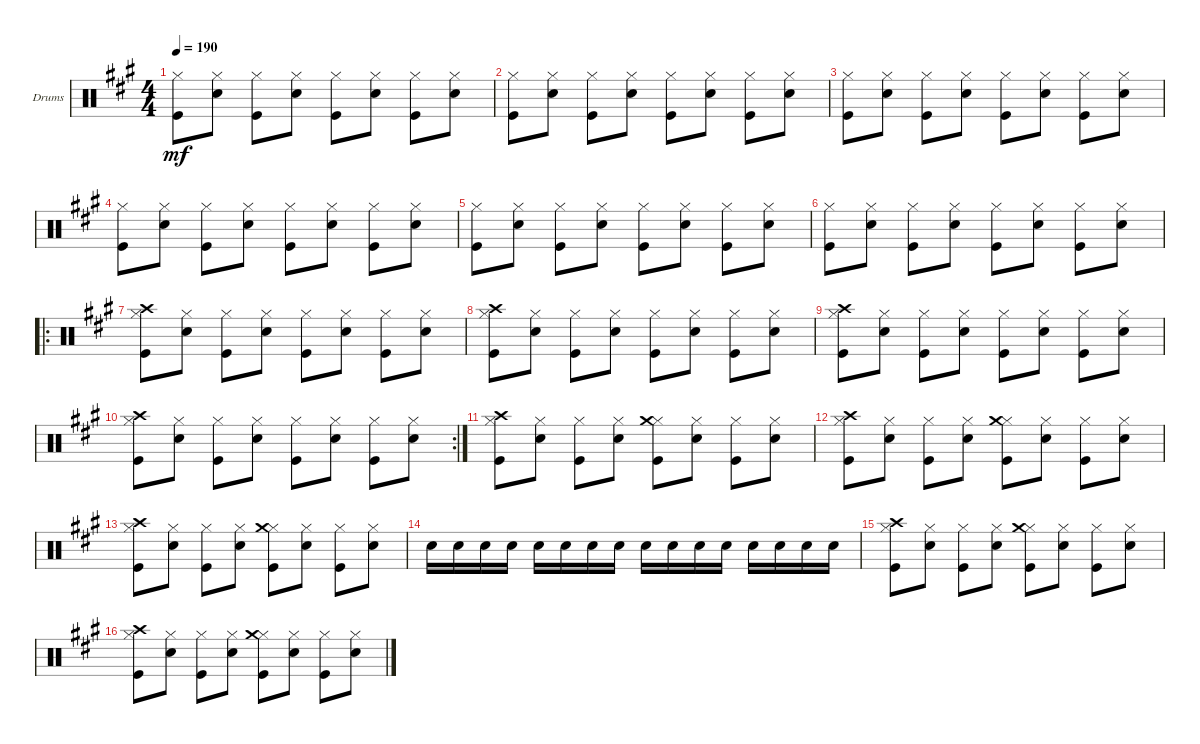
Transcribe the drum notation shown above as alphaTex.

\defaultSystemsLayout 4
\bracketExtendMode groupsimilarinstruments
\firstSystemTrackNameOrientation horizontal
\otherSystemsTrackNameOrientation horizontal
\track ("Drumkit" "Drums") {instrument percussion}
\staff {score}
\articulation defaults
\ts (4 4)
\tempo 190
\clef neutral
\ks f#minor
("Kick (hit)" "Hi-Hat (closed)").8{dy mf} ("Snare (hit) 2" "Hi-Hat (closed)").8 ("Kick (hit)" "Hi-Hat (closed)").8 ("Snare (hit) 2" "Hi-Hat (closed)").8 ("Kick (hit)" "Hi-Hat (closed)").8 ("Snare (hit) 2" "Hi-Hat (closed)").8 ("Kick (hit)" "Hi-Hat (closed)").8 ("Snare (hit) 2" "Hi-Hat (closed)").8 |
("Kick (hit)" "Hi-Hat (closed)").8 ("Snare (hit) 2" "Hi-Hat (closed)").8 ("Kick (hit)" "Hi-Hat (closed)").8 ("Snare (hit) 2" "Hi-Hat (closed)").8 ("Kick (hit)" "Hi-Hat (closed)").8 ("Snare (hit) 2" "Hi-Hat (closed)").8 ("Kick (hit)" "Hi-Hat (closed)").8 ("Snare (hit) 2" "Hi-Hat (closed)").8 |
("Kick (hit)" "Hi-Hat (closed)").8 ("Snare (hit) 2" "Hi-Hat (closed)").8 ("Kick (hit)" "Hi-Hat (closed)").8 ("Snare (hit) 2" "Hi-Hat (closed)").8 ("Kick (hit)" "Hi-Hat (closed)").8 ("Snare (hit) 2" "Hi-Hat (closed)").8 ("Kick (hit)" "Hi-Hat (closed)").8 ("Snare (hit) 2" "Hi-Hat (closed)").8 |
("Kick (hit)" "Hi-Hat (closed)").8 ("Snare (hit) 2" "Hi-Hat (closed)").8 ("Kick (hit)" "Hi-Hat (closed)").8 ("Snare (hit) 2" "Hi-Hat (closed)").8 ("Kick (hit)" "Hi-Hat (closed)").8 ("Snare (hit) 2" "Hi-Hat (closed)").8 ("Kick (hit)" "Hi-Hat (closed)").8 ("Snare (hit) 2" "Hi-Hat (closed)").8 |
("Kick (hit)" "Hi-Hat (closed)").8 ("Snare (hit) 2" "Hi-Hat (closed)").8 ("Kick (hit)" "Hi-Hat (closed)").8 ("Snare (hit) 2" "Hi-Hat (closed)").8 ("Kick (hit)" "Hi-Hat (closed)").8 ("Snare (hit) 2" "Hi-Hat (closed)").8 ("Kick (hit)" "Hi-Hat (closed)").8 ("Snare (hit) 2" "Hi-Hat (closed)").8 |
("Kick (hit)" "Hi-Hat (closed)").8 ("Snare (hit) 2" "Hi-Hat (closed)").8 ("Kick (hit)" "Hi-Hat (closed)").8 ("Snare (hit) 2" "Hi-Hat (closed)").8 ("Kick (hit)" "Hi-Hat (closed)").8 ("Snare (hit) 2" "Hi-Hat (closed)").8 ("Kick (hit)" "Hi-Hat (closed)").8 ("Snare (hit) 2" "Hi-Hat (closed)").8 |
\ro
("Kick (hit)" "Hi-Hat (closed)" "Crash high (hit)").8 ("Snare (hit) 2" "Hi-Hat (closed)").8 ("Kick (hit)" "Hi-Hat (closed)").8 ("Snare (hit) 2" "Hi-Hat (closed)").8 ("Kick (hit)" "Hi-Hat (closed)").8 ("Snare (hit) 2" "Hi-Hat (closed)").8 ("Kick (hit)" "Hi-Hat (closed)").8 ("Snare (hit) 2" "Hi-Hat (closed)").8 |
("Kick (hit)" "Hi-Hat (closed)" "Crash high (hit)").8 ("Snare (hit) 2" "Hi-Hat (closed)").8 ("Kick (hit)" "Hi-Hat (closed)").8 ("Snare (hit) 2" "Hi-Hat (closed)").8 ("Kick (hit)" "Hi-Hat (closed)").8 ("Snare (hit) 2" "Hi-Hat (closed)").8 ("Kick (hit)" "Hi-Hat (closed)").8 ("Snare (hit) 2" "Hi-Hat (closed)").8 |
("Kick (hit)" "Hi-Hat (closed)" "Crash high (hit)").8 ("Snare (hit) 2" "Hi-Hat (closed)").8 ("Kick (hit)" "Hi-Hat (closed)").8 ("Snare (hit) 2" "Hi-Hat (closed)").8 ("Kick (hit)" "Hi-Hat (closed)").8 ("Snare (hit) 2" "Hi-Hat (closed)").8 ("Kick (hit)" "Hi-Hat (closed)").8 ("Snare (hit) 2" "Hi-Hat (closed)").8 |
\rc 2
("Kick (hit)" "Hi-Hat (closed)" "Crash high (hit)").8 ("Snare (hit) 2" "Hi-Hat (closed)").8 ("Kick (hit)" "Hi-Hat (closed)").8 ("Snare (hit) 2" "Hi-Hat (closed)").8 ("Kick (hit)" "Hi-Hat (closed)").8 ("Snare (hit) 2" "Hi-Hat (closed)").8 ("Kick (hit)" "Hi-Hat (closed)").8 ("Snare (hit) 2" "Hi-Hat (closed)").8 |
("Kick (hit)" "Hi-Hat (closed)" "Crash high (hit)").8 ("Snare (hit) 2" "Hi-Hat (closed)").8 ("Kick (hit)" "Hi-Hat (closed)").8 ("Snare (hit) 2" "Hi-Hat (closed)").8 ("Kick (hit)" "Hi-Hat (closed)" "Crash medium (hit)").8 ("Snare (hit) 2" "Hi-Hat (closed)").8 ("Kick (hit)" "Hi-Hat (closed)").8 ("Snare (hit) 2" "Hi-Hat (closed)").8 |
("Kick (hit)" "Hi-Hat (closed)" "Crash high (hit)").8 ("Snare (hit) 2" "Hi-Hat (closed)").8 ("Kick (hit)" "Hi-Hat (closed)").8 ("Snare (hit) 2" "Hi-Hat (closed)").8 ("Kick (hit)" "Hi-Hat (closed)" "Crash medium (hit)").8 ("Snare (hit) 2" "Hi-Hat (closed)").8 ("Kick (hit)" "Hi-Hat (closed)").8 ("Snare (hit) 2" "Hi-Hat (closed)").8 |
("Kick (hit)" "Hi-Hat (closed)" "Crash high (hit)").8 ("Snare (hit) 2" "Hi-Hat (closed)").8 ("Kick (hit)" "Hi-Hat (closed)").8 ("Snare (hit) 2" "Hi-Hat (closed)").8 ("Kick (hit)" "Hi-Hat (closed)" "Crash medium (hit)").8 ("Snare (hit) 2" "Hi-Hat (closed)").8 ("Kick (hit)" "Hi-Hat (closed)").8 ("Snare (hit) 2" "Hi-Hat (closed)").8 |
"Snare (hit) 2".16 "Snare (hit) 2".16 "Snare (hit) 2".16 "Snare (hit) 2".16 "Snare (hit) 2".16 "Snare (hit) 2".16 "Snare (hit) 2".16 "Snare (hit) 2".16 "Snare (hit) 2".16 "Snare (hit) 2".16 "Snare (hit) 2".16 "Snare (hit) 2".16 "Snare (hit) 2".16 "Snare (hit) 2".16 "Snare (hit) 2".16 "Snare (hit) 2".16 |
("Kick (hit)" "Hi-Hat (closed)" "Crash high (hit)").8 ("Snare (hit) 2" "Hi-Hat (closed)").8 ("Kick (hit)" "Hi-Hat (closed)").8 ("Snare (hit) 2" "Hi-Hat (closed)").8 ("Kick (hit)" "Hi-Hat (closed)" "Crash medium (hit)").8 ("Snare (hit) 2" "Hi-Hat (closed)").8 ("Kick (hit)" "Hi-Hat (closed)").8 ("Snare (hit) 2" "Hi-Hat (closed)").8 |
("Kick (hit)" "Hi-Hat (closed)" "Crash high (hit)").8 ("Snare (hit) 2" "Hi-Hat (closed)").8 ("Kick (hit)" "Hi-Hat (closed)").8 ("Snare (hit) 2" "Hi-Hat (closed)").8 ("Kick (hit)" "Hi-Hat (closed)" "Crash medium (hit)").8 ("Snare (hit) 2" "Hi-Hat (closed)").8 ("Kick (hit)" "Hi-Hat (closed)").8 ("Snare (hit) 2" "Hi-Hat (closed)").8
